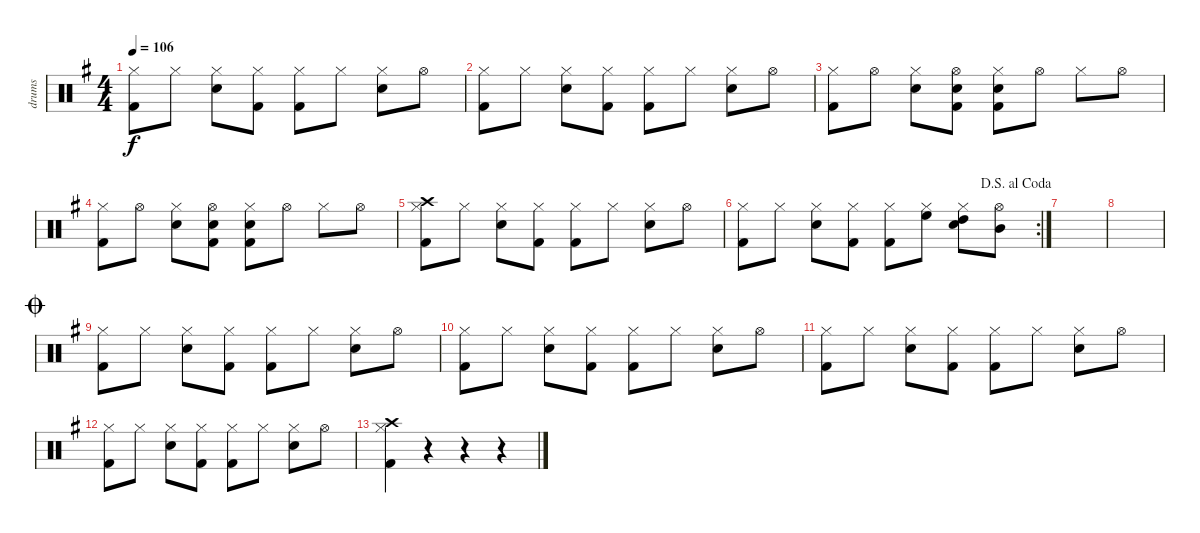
\track ("drums" "drums") {instrument percussion}
\staff {score}
\articulation defaults
\ts (4 4)
\tempo 106
\clef neutral
\ks g
("Hi-Hat (closed)" "Kick (hit) 2").8{dy f} "Hi-Hat (closed)".8 ("Hi-Hat (closed)" "Snare (hit) 2").8 ("Hi-Hat (closed)" "Kick (hit) 2").8 ("Hi-Hat (closed)" "Kick (hit) 2").8 "Hi-Hat (closed)".8 ("Hi-Hat (closed)" "Snare (hit) 2").8 "Hi-Hat (open)".8 |
("Hi-Hat (closed)" "Kick (hit) 2").8 "Hi-Hat (closed)".8 ("Hi-Hat (closed)" "Snare (hit) 2").8 ("Hi-Hat (closed)" "Kick (hit) 2").8 ("Hi-Hat (closed)" "Kick (hit) 2").8 "Hi-Hat (closed)".8 ("Hi-Hat (closed)" "Snare (hit) 2").8 "Hi-Hat (open)".8 |
("Hi-Hat (closed)" "Kick (hit) 2").8 "Hi-Hat (open)".8 ("Hi-Hat (closed)" "Snare (hit) 2").8 ("Hi-Hat (open)" "Snare (hit) 2" "Kick (hit) 2").8 ("Hi-Hat (closed)" "Snare (hit) 2" "Kick (hit) 2").8 "Hi-Hat (open)".8 "Hi-Hat (closed)".8 "Hi-Hat (open)".8 |
("Hi-Hat (closed)" "Kick (hit) 2").8 "Hi-Hat (open)".8 ("Hi-Hat (closed)" "Snare (hit) 2").8 ("Hi-Hat (open)" "Snare (hit) 2" "Kick (hit) 2").8 ("Hi-Hat (closed)" "Snare (hit) 2" "Kick (hit) 2").8 "Hi-Hat (open)".8 "Hi-Hat (closed)".8 "Hi-Hat (open)".8 |
("Hi-Hat (closed)" "Crash high (hit)" "Kick (hit) 2").8 "Hi-Hat (closed)".8 ("Hi-Hat (closed)" "Snare (hit) 2").8 ("Hi-Hat (closed)" "Kick (hit) 2").8 ("Hi-Hat (closed)" "Kick (hit) 2").8 "Hi-Hat (closed)".8 ("Hi-Hat (closed)" "Snare (hit) 2").8 "Hi-Hat (open)".8 |
\rc 2
\jump dalsegnoalcoda
("Hi-Hat (closed)" "Kick (hit) 2").8 "Hi-Hat (closed)".8 ("Hi-Hat (closed)" "Snare (hit) 2").8 ("Hi-Hat (closed)" "Kick (hit) 2").8 ("Hi-Hat (closed)" "Kick (hit) 2").8 ("Hi-Hat (closed)" "High Floor Tom (hit)").8 ("Hi-Hat (closed)" "High Tom (hit)" "Snare (hit) 2").8 ("Hi-Hat (open)" "Mid Tom (hit)").8 |
|
|
\jump coda
("Hi-Hat (closed)" "Kick (hit) 2").8 "Hi-Hat (closed)".8 ("Hi-Hat (closed)" "Snare (hit) 2").8 ("Hi-Hat (closed)" "Kick (hit) 2").8 ("Hi-Hat (closed)" "Kick (hit) 2").8 "Hi-Hat (closed)".8 ("Hi-Hat (closed)" "Snare (hit) 2").8 "Hi-Hat (open)".8 |
("Hi-Hat (closed)" "Kick (hit) 2").8 "Hi-Hat (closed)".8 ("Hi-Hat (closed)" "Snare (hit) 2").8 ("Hi-Hat (closed)" "Kick (hit) 2").8 ("Hi-Hat (closed)" "Kick (hit) 2").8 "Hi-Hat (closed)".8 ("Hi-Hat (closed)" "Snare (hit) 2").8 "Hi-Hat (open)".8 |
("Hi-Hat (closed)" "Kick (hit) 2").8 "Hi-Hat (closed)".8 ("Hi-Hat (closed)" "Snare (hit) 2").8 ("Hi-Hat (closed)" "Kick (hit) 2").8 ("Hi-Hat (closed)" "Kick (hit) 2").8 "Hi-Hat (closed)".8 ("Hi-Hat (closed)" "Snare (hit) 2").8 "Hi-Hat (open)".8 |
("Hi-Hat (closed)" "Kick (hit) 2").8 "Hi-Hat (closed)".8 ("Hi-Hat (closed)" "Snare (hit) 2").8 ("Hi-Hat (closed)" "Kick (hit) 2").8 ("Hi-Hat (closed)" "Kick (hit) 2").8 "Hi-Hat (closed)".8 ("Hi-Hat (closed)" "Snare (hit) 2").8 "Hi-Hat (open)".8 |
("Hi-Hat (closed)" "Crash high (hit)" "Kick (hit) 2").4 r.4 r.4 r.4
